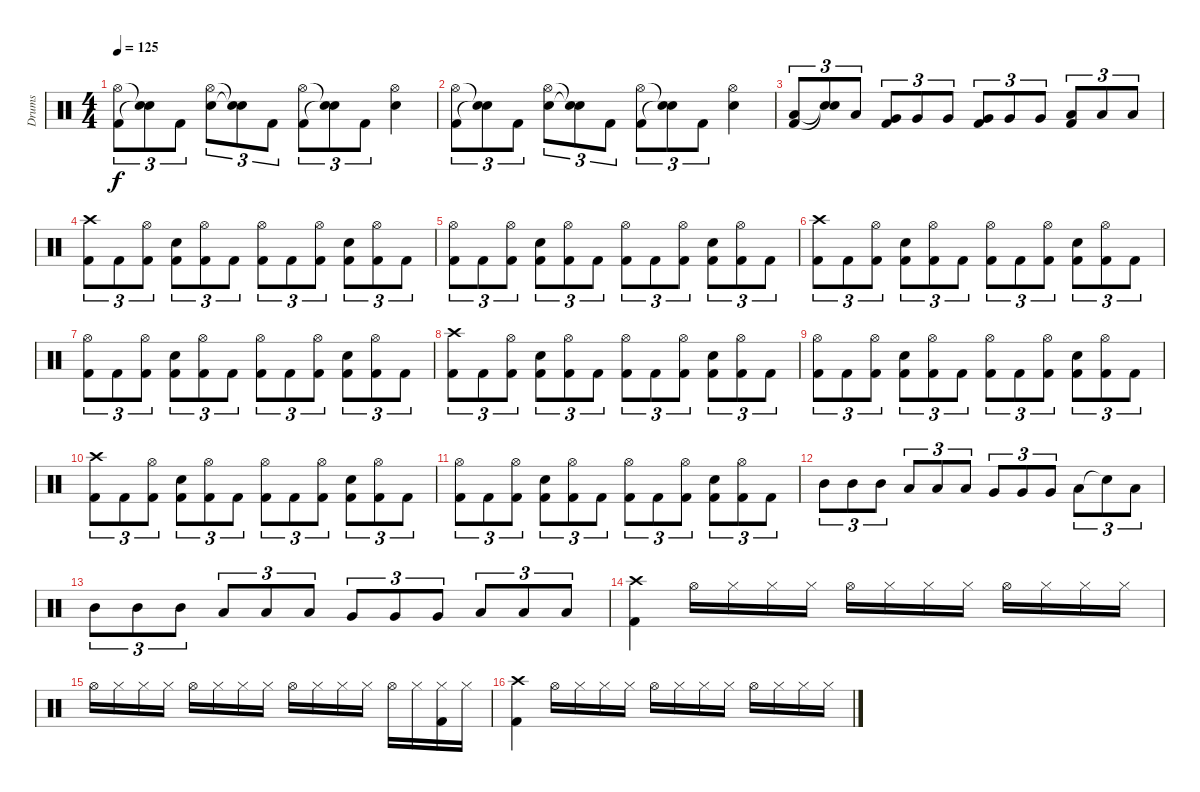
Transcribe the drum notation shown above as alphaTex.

\track ("Drums" "Drums") {instrument percussion}
\staff {score}
\articulation defaults
\ts (4 4)
\tempo 125
\clef neutral
\ks c
("Hi-Hat (open)" "Kick (hit) 2").8{tu (3 2) dy f} ("Snare (hit)"{t} "Snare (hit)"{t}).8{tu (3 2)} "Kick (hit) 2".8{tu (3 2)} ("Hi-Hat (open)" "Snare (hit) 2").8{tu (3 2)} ("Snare (hit)"{t} "Snare (hit)"{t}).8{tu (3 2)} "Kick (hit) 2".8{tu (3 2)} ("Hi-Hat (open)" "Kick (hit) 2").8{tu (3 2)} ("Snare (hit)"{t} "Snare (hit)"{t}).8{tu (3 2)} "Kick (hit) 2".8{tu (3 2)} ("Hi-Hat (open)" "Snare (hit) 2").4 |
("Hi-Hat (open)" "Kick (hit) 2").8{tu (3 2)} ("Snare (hit)"{t} "Snare (hit)"{t}).8{tu (3 2)} "Kick (hit) 2".8{tu (3 2)} ("Hi-Hat (open)" "Snare (hit) 2").8{tu (3 2)} ("Snare (hit)"{t} "Snare (hit)"{t}).8{tu (3 2)} "Kick (hit) 2".8{tu (3 2)} ("Hi-Hat (open)" "Kick (hit) 2").8{tu (3 2)} ("Snare (hit)"{t} "Snare (hit)"{t}).8{tu (3 2)} "Kick (hit) 2".8{tu (3 2)} ("Hi-Hat (open)" "Snare (hit) 2").4 |
("Kick (hit) 2" "Low Tom (hit)").8{tu (3 2)} ("Snare (hit)"{t} "Snare (hit)"{t}).8{tu (3 2)} "Low Tom (hit)".8{tu (3 2)} ("Kick (hit) 2" "Very Low Tom (hit)").8{tu (3 2)} "Very Low Tom (hit)".8{tu (3 2)} "Very Low Tom (hit)".8{tu (3 2)} ("Kick (hit) 2" "Very Low Tom (hit)").8{tu (3 2)} "Very Low Tom (hit)".8{tu (3 2)} "Very Low Tom (hit)".8{tu (3 2)} ("Kick (hit) 2" "Low Floor Tom (hit)").8{tu (3 2)} "Low Floor Tom (hit)".8{tu (3 2)} "Low Floor Tom (hit)".8{tu (3 2)} |
("Crash high (hit)" "Kick (hit) 2").8{tu (3 2)} "Kick (hit) 2".8{tu (3 2)} ("Hi-Hat (open)" "Kick (hit) 2").8{tu (3 2)} ("Snare (hit) 2" "Kick (hit) 2").8{tu (3 2)} ("Hi-Hat (open)" "Kick (hit) 2").8{tu (3 2)} "Kick (hit) 2".8{tu (3 2)} ("Hi-Hat (open)" "Kick (hit) 2").8{tu (3 2)} "Kick (hit) 2".8{tu (3 2)} ("Hi-Hat (open)" "Kick (hit) 2").8{tu (3 2)} ("Snare (hit) 2" "Kick (hit) 2").8{tu (3 2)} ("Hi-Hat (open)" "Kick (hit) 2").8{tu (3 2)} "Kick (hit) 2".8{tu (3 2)} |
("Hi-Hat (open)" "Kick (hit) 2").8{tu (3 2)} "Kick (hit) 2".8{tu (3 2)} ("Hi-Hat (open)" "Kick (hit) 2").8{tu (3 2)} ("Snare (hit) 2" "Kick (hit) 2").8{tu (3 2)} ("Hi-Hat (open)" "Kick (hit) 2").8{tu (3 2)} "Kick (hit) 2".8{tu (3 2)} ("Hi-Hat (open)" "Kick (hit) 2").8{tu (3 2)} "Kick (hit) 2".8{tu (3 2)} ("Hi-Hat (open)" "Kick (hit) 2").8{tu (3 2)} ("Snare (hit) 2" "Kick (hit) 2").8{tu (3 2)} ("Hi-Hat (open)" "Kick (hit) 2").8{tu (3 2)} "Kick (hit) 2".8{tu (3 2)} |
("Crash high (hit)" "Kick (hit) 2").8{tu (3 2)} "Kick (hit) 2".8{tu (3 2)} ("Hi-Hat (open)" "Kick (hit) 2").8{tu (3 2)} ("Snare (hit) 2" "Kick (hit) 2").8{tu (3 2)} ("Hi-Hat (open)" "Kick (hit) 2").8{tu (3 2)} "Kick (hit) 2".8{tu (3 2)} ("Hi-Hat (open)" "Kick (hit) 2").8{tu (3 2)} "Kick (hit) 2".8{tu (3 2)} ("Hi-Hat (open)" "Kick (hit) 2").8{tu (3 2)} ("Snare (hit) 2" "Kick (hit) 2").8{tu (3 2)} ("Hi-Hat (open)" "Kick (hit) 2").8{tu (3 2)} "Kick (hit) 2".8{tu (3 2)} |
("Hi-Hat (open)" "Kick (hit) 2").8{tu (3 2)} "Kick (hit) 2".8{tu (3 2)} ("Hi-Hat (open)" "Kick (hit) 2").8{tu (3 2)} ("Snare (hit) 2" "Kick (hit) 2").8{tu (3 2)} ("Hi-Hat (open)" "Kick (hit) 2").8{tu (3 2)} "Kick (hit) 2".8{tu (3 2)} ("Hi-Hat (open)" "Kick (hit) 2").8{tu (3 2)} "Kick (hit) 2".8{tu (3 2)} ("Hi-Hat (open)" "Kick (hit) 2").8{tu (3 2)} ("Snare (hit) 2" "Kick (hit) 2").8{tu (3 2)} ("Hi-Hat (open)" "Kick (hit) 2").8{tu (3 2)} "Kick (hit) 2".8{tu (3 2)} |
("Crash high (hit)" "Kick (hit) 2").8{tu (3 2)} "Kick (hit) 2".8{tu (3 2)} ("Hi-Hat (open)" "Kick (hit) 2").8{tu (3 2)} ("Snare (hit) 2" "Kick (hit) 2").8{tu (3 2)} ("Hi-Hat (open)" "Kick (hit) 2").8{tu (3 2)} "Kick (hit) 2".8{tu (3 2)} ("Hi-Hat (open)" "Kick (hit) 2").8{tu (3 2)} "Kick (hit) 2".8{tu (3 2)} ("Hi-Hat (open)" "Kick (hit) 2").8{tu (3 2)} ("Snare (hit) 2" "Kick (hit) 2").8{tu (3 2)} ("Hi-Hat (open)" "Kick (hit) 2").8{tu (3 2)} "Kick (hit) 2".8{tu (3 2)} |
("Hi-Hat (open)" "Kick (hit) 2").8{tu (3 2)} "Kick (hit) 2".8{tu (3 2)} ("Hi-Hat (open)" "Kick (hit) 2").8{tu (3 2)} ("Snare (hit) 2" "Kick (hit) 2").8{tu (3 2)} ("Hi-Hat (open)" "Kick (hit) 2").8{tu (3 2)} "Kick (hit) 2".8{tu (3 2)} ("Hi-Hat (open)" "Kick (hit) 2").8{tu (3 2)} "Kick (hit) 2".8{tu (3 2)} ("Hi-Hat (open)" "Kick (hit) 2").8{tu (3 2)} ("Snare (hit) 2" "Kick (hit) 2").8{tu (3 2)} ("Hi-Hat (open)" "Kick (hit) 2").8{tu (3 2)} "Kick (hit) 2".8{tu (3 2)} |
("Crash high (hit)" "Kick (hit) 2").8{tu (3 2)} "Kick (hit) 2".8{tu (3 2)} ("Hi-Hat (open)" "Kick (hit) 2").8{tu (3 2)} ("Snare (hit) 2" "Kick (hit) 2").8{tu (3 2)} ("Hi-Hat (open)" "Kick (hit) 2").8{tu (3 2)} "Kick (hit) 2".8{tu (3 2)} ("Hi-Hat (open)" "Kick (hit) 2").8{tu (3 2)} "Kick (hit) 2".8{tu (3 2)} ("Hi-Hat (open)" "Kick (hit) 2").8{tu (3 2)} ("Snare (hit) 2" "Kick (hit) 2").8{tu (3 2)} ("Hi-Hat (open)" "Kick (hit) 2").8{tu (3 2)} "Kick (hit) 2".8{tu (3 2)} |
("Hi-Hat (open)" "Kick (hit) 2").8{tu (3 2)} "Kick (hit) 2".8{tu (3 2)} ("Hi-Hat (open)" "Kick (hit) 2").8{tu (3 2)} ("Snare (hit) 2" "Kick (hit) 2").8{tu (3 2)} ("Hi-Hat (open)" "Kick (hit) 2").8{tu (3 2)} "Kick (hit) 2".8{tu (3 2)} ("Hi-Hat (open)" "Kick (hit) 2").8{tu (3 2)} "Kick (hit) 2".8{tu (3 2)} ("Hi-Hat (open)" "Kick (hit) 2").8{tu (3 2)} ("Snare (hit) 2" "Kick (hit) 2").8{tu (3 2)} ("Hi-Hat (open)" "Kick (hit) 2").8{tu (3 2)} "Kick (hit) 2".8{tu (3 2)} |
"Mid Tom (hit)".8{tu (3 2)} "Mid Tom (hit)".8{tu (3 2)} "Mid Tom (hit)".8{tu (3 2)} "Low Tom (hit)".8{tu (3 2)} "Low Tom (hit)".8{tu (3 2)} "Low Tom (hit)".8{tu (3 2)} "Very Low Tom (hit)".8{tu (3 2)} "Very Low Tom (hit)".8{tu (3 2)} "Very Low Tom (hit)".8{tu (3 2)} "Low Floor Tom (hit)".8{tu (3 2)} "Snare (hit)"{t}.8{tu (3 2)} "Low Floor Tom (hit)".8{tu (3 2)} |
"Mid Tom (hit)".8{tu (3 2)} "Mid Tom (hit)".8{tu (3 2)} "Mid Tom (hit)".8{tu (3 2)} "Low Tom (hit)".8{tu (3 2)} "Low Tom (hit)".8{tu (3 2)} "Low Tom (hit)".8{tu (3 2)} "Very Low Tom (hit)".8{tu (3 2)} "Very Low Tom (hit)".8{tu (3 2)} "Very Low Tom (hit)".8{tu (3 2)} "Low Floor Tom (hit)".8{tu (3 2)} "Low Floor Tom (hit)".8{tu (3 2)} "Low Floor Tom (hit)".8{tu (3 2)} |
("Crash high (hit)" "Kick (hit) 2").4 "Hi-Hat (open)".16 "Hi-Hat (closed)".16 "Hi-Hat (closed)".16 "Hi-Hat (closed)".16 "Hi-Hat (open)".16 "Hi-Hat (closed)".16 "Hi-Hat (closed)".16 "Hi-Hat (closed)".16 "Hi-Hat (open)".16 "Hi-Hat (closed)".16 "Hi-Hat (closed)".16 "Hi-Hat (closed)".16 |
"Hi-Hat (open)".16 "Hi-Hat (closed)".16 "Hi-Hat (closed)".16 "Hi-Hat (closed)".16 "Hi-Hat (open)".16 "Hi-Hat (closed)".16 "Hi-Hat (closed)".16 "Hi-Hat (closed)".16 "Hi-Hat (open)".16 "Hi-Hat (closed)".16 "Hi-Hat (closed)".16 "Hi-Hat (closed)".16 "Hi-Hat (open)".16 "Hi-Hat (closed)".16 ("Hi-Hat (closed)" "Kick (hit) 2").16 "Hi-Hat (closed)".16 |
("Crash high (hit)" "Kick (hit) 2").4 "Hi-Hat (open)".16 "Hi-Hat (closed)".16 "Hi-Hat (closed)".16 "Hi-Hat (closed)".16 "Hi-Hat (open)".16 "Hi-Hat (closed)".16 "Hi-Hat (closed)".16 "Hi-Hat (closed)".16 "Hi-Hat (open)".16 "Hi-Hat (closed)".16 "Hi-Hat (closed)".16 "Hi-Hat (closed)".16
